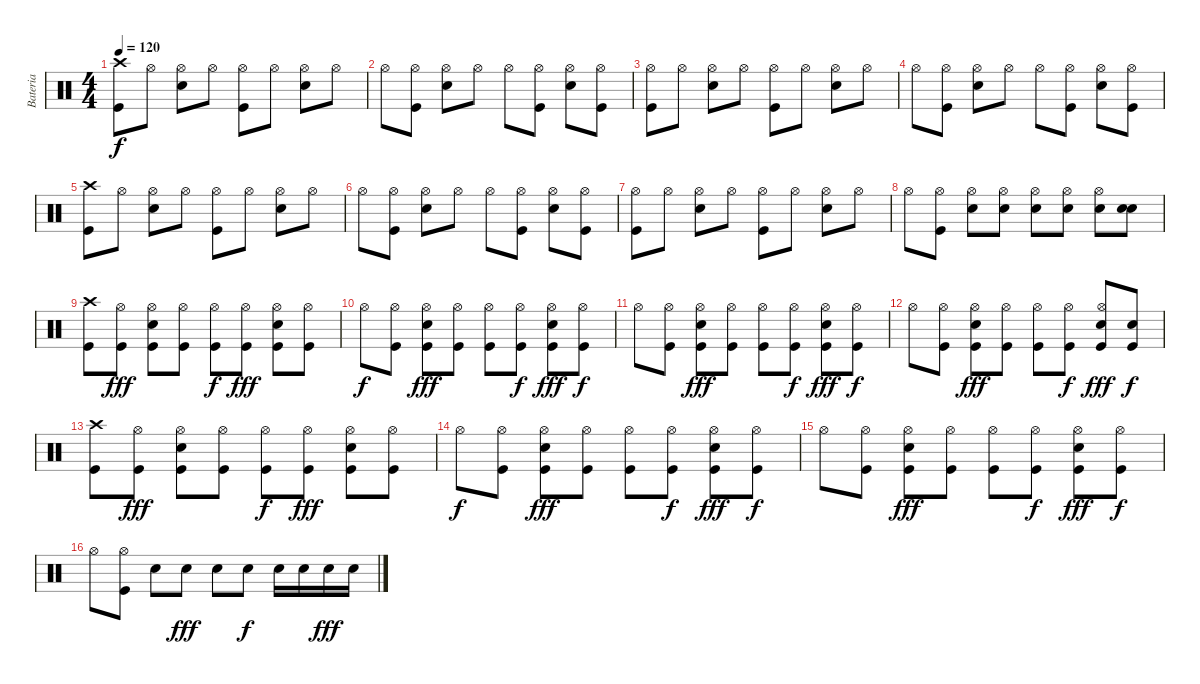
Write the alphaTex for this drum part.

\track ("Bateria" "Bateria") {instrument percussion}
\staff {score}
\articulation defaults
\ts (4 4)
\tempo 120
\clef neutral
\ks c
("Kick (hit)" "Crash high (hit)").8{dy f} "Hi-Hat (open)".8 ("Electric Snare (hit)" "Hi-Hat (open)").8 "Hi-Hat (open)".8 ("Kick (hit)" "Hi-Hat (open)").8 "Hi-Hat (open)".8 ("Electric Snare (hit)" "Hi-Hat (open)").8 "Hi-Hat (open)".8 |
"Hi-Hat (open)".8 ("Kick (hit)" "Hi-Hat (open)").8 ("Electric Snare (hit)" "Hi-Hat (open)").8 "Hi-Hat (open)".8 "Hi-Hat (open)".8 ("Kick (hit)" "Hi-Hat (open)").8 ("Electric Snare (hit)" "Hi-Hat (open)").8 ("Kick (hit)" "Hi-Hat (open)").8 |
("Kick (hit)" "Hi-Hat (open)").8 "Hi-Hat (open)".8 ("Electric Snare (hit)" "Hi-Hat (open)").8 "Hi-Hat (open)".8 ("Kick (hit)" "Hi-Hat (open)").8 "Hi-Hat (open)".8 ("Electric Snare (hit)" "Hi-Hat (open)").8 "Hi-Hat (open)".8 |
"Hi-Hat (open)".8 ("Kick (hit)" "Hi-Hat (open)").8 ("Electric Snare (hit)" "Hi-Hat (open)").8 "Hi-Hat (open)".8 "Hi-Hat (open)".8 ("Kick (hit)" "Hi-Hat (open)").8 ("Electric Snare (hit)" "Hi-Hat (open)").8 ("Kick (hit)" "Hi-Hat (open)").8 |
("Kick (hit)" "Crash high (hit)").8 "Hi-Hat (open)".8 ("Electric Snare (hit)" "Hi-Hat (open)").8 "Hi-Hat (open)".8 ("Kick (hit)" "Hi-Hat (open)").8 "Hi-Hat (open)".8 ("Electric Snare (hit)" "Hi-Hat (open)").8 "Hi-Hat (open)".8 |
"Hi-Hat (open)".8 ("Kick (hit)" "Hi-Hat (open)").8 ("Electric Snare (hit)" "Hi-Hat (open)").8 "Hi-Hat (open)".8 "Hi-Hat (open)".8 ("Kick (hit)" "Hi-Hat (open)").8 ("Electric Snare (hit)" "Hi-Hat (open)").8 ("Kick (hit)" "Hi-Hat (open)").8 |
("Kick (hit)" "Hi-Hat (open)").8 "Hi-Hat (open)".8 ("Electric Snare (hit)" "Hi-Hat (open)").8 "Hi-Hat (open)".8 ("Kick (hit)" "Hi-Hat (open)").8 "Hi-Hat (open)".8 ("Electric Snare (hit)" "Hi-Hat (open)").8 "Hi-Hat (open)".8 |
"Hi-Hat (open)".8 ("Kick (hit)" "Hi-Hat (open)").8 ("Electric Snare (hit)" "Hi-Hat (open)").8 ("Electric Snare (hit)" "Hi-Hat (open)").8 ("Electric Snare (hit)" "Hi-Hat (open)").8 ("Electric Snare (hit)" "Hi-Hat (open)").8 ("Electric Snare (hit)" "Hi-Hat (open)").8 ("Electric Snare (hit)" "Electric Snare (hit)").8 |
("Kick (hit)" "Crash high (hit)").8 ("Kick (hit)" "Hi-Hat (open)").8{dy fff} ("Kick (hit)" "Electric Snare (hit)" "Hi-Hat (open)").8 ("Kick (hit)" "Hi-Hat (open)").8 ("Kick (hit)" "Hi-Hat (open)").8{dy f} ("Kick (hit)" "Hi-Hat (open)").8{dy fff} ("Kick (hit)" "Electric Snare (hit)" "Hi-Hat (open)").8 ("Kick (hit)" "Hi-Hat (open)").8 |
"Hi-Hat (open)".8{dy f} ("Kick (hit)" "Hi-Hat (open)").8 ("Kick (hit)" "Electric Snare (hit)" "Hi-Hat (open)").8{dy fff} ("Kick (hit)" "Hi-Hat (open)").8 ("Kick (hit)" "Hi-Hat (open)").8 ("Kick (hit)" "Hi-Hat (open)").8{dy f} ("Kick (hit)" "Electric Snare (hit)" "Hi-Hat (open)").8{dy fff} ("Kick (hit)" "Hi-Hat (open)").8{dy f} |
"Hi-Hat (open)".8 ("Kick (hit)" "Hi-Hat (open)").8 ("Kick (hit)" "Electric Snare (hit)" "Hi-Hat (open)").8{dy fff} ("Kick (hit)" "Hi-Hat (open)").8 ("Kick (hit)" "Hi-Hat (open)").8 ("Kick (hit)" "Hi-Hat (open)").8{dy f} ("Kick (hit)" "Electric Snare (hit)" "Hi-Hat (open)").8{dy fff} ("Kick (hit)" "Hi-Hat (open)").8{dy f} |
"Hi-Hat (open)".8 ("Kick (hit)" "Hi-Hat (open)").8 ("Kick (hit)" "Electric Snare (hit)" "Hi-Hat (open)").8{dy fff} ("Kick (hit)" "Hi-Hat (open)").8 ("Kick (hit)" "Hi-Hat (open)").8 ("Kick (hit)" "Hi-Hat (open)").8{dy f} ("Kick (hit)" "Electric Snare (hit)" "Hi-Hat (open)").8{dy fff} ("Kick (hit)" "Electric Snare (hit)").8{dy f} |
("Kick (hit)" "Crash high (hit)").8 ("Kick (hit)" "Hi-Hat (open)").8{dy fff} ("Kick (hit)" "Electric Snare (hit)" "Hi-Hat (open)").8 ("Kick (hit)" "Hi-Hat (open)").8 ("Kick (hit)" "Hi-Hat (open)").8{dy f} ("Kick (hit)" "Hi-Hat (open)").8{dy fff} ("Kick (hit)" "Electric Snare (hit)" "Hi-Hat (open)").8 ("Kick (hit)" "Hi-Hat (open)").8 |
"Hi-Hat (open)".8{dy f} ("Kick (hit)" "Hi-Hat (open)").8 ("Kick (hit)" "Electric Snare (hit)" "Hi-Hat (open)").8{dy fff} ("Kick (hit)" "Hi-Hat (open)").8 ("Kick (hit)" "Hi-Hat (open)").8 ("Kick (hit)" "Hi-Hat (open)").8{dy f} ("Kick (hit)" "Electric Snare (hit)" "Hi-Hat (open)").8{dy fff} ("Kick (hit)" "Hi-Hat (open)").8{dy f} |
"Hi-Hat (open)".8 ("Kick (hit)" "Hi-Hat (open)").8 ("Kick (hit)" "Electric Snare (hit)" "Hi-Hat (open)").8{dy fff} ("Kick (hit)" "Hi-Hat (open)").8 ("Kick (hit)" "Hi-Hat (open)").8 ("Kick (hit)" "Hi-Hat (open)").8{dy f} ("Kick (hit)" "Electric Snare (hit)" "Hi-Hat (open)").8{dy fff} ("Kick (hit)" "Hi-Hat (open)").8{dy f} |
"Hi-Hat (open)".8 ("Kick (hit)" "Hi-Hat (open)").8 "Electric Snare (hit)".8 "Electric Snare (hit)".8{dy fff} "Electric Snare (hit)".8 "Electric Snare (hit)".8{dy f} "Electric Snare (hit)".16 "Electric Snare (hit)".16 "Electric Snare (hit)".16{dy fff} "Electric Snare (hit)".16
